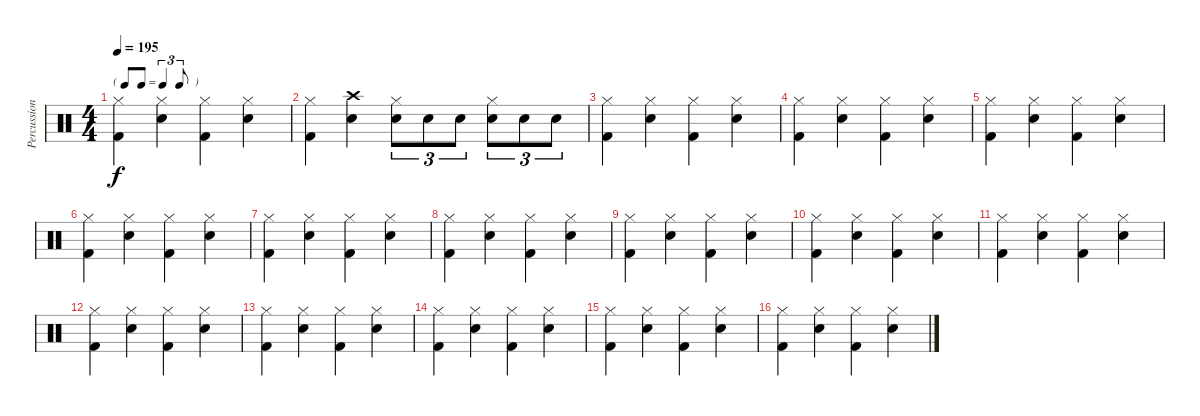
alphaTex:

\track ("Percussions" "Percussion") {instrument percussion}
\staff {score}
\articulation defaults
\ts (4 4)
\tf triplet8th
\tempo 195
\clef neutral
\ks c
("Hi-Hat (closed)" "Kick (hit) 2").4{dy f} ("Snare (hit) 2" "Hi-Hat (closed)").4 ("Hi-Hat (closed)" "Kick (hit) 2").4 ("Snare (hit) 2" "Hi-Hat (closed)").4 |
("Hi-Hat (closed)" "Kick (hit) 2").4 ("Snare (hit) 2" "Crash high (hit)").4 ("Snare (hit) 2" "Hi-Hat (closed)").8{tu (3 2)} "Snare (hit) 2".8{tu (3 2)} "Snare (hit) 2".8{tu (3 2)} ("Snare (hit) 2" "Hi-Hat (closed)").8{tu (3 2)} "Snare (hit) 2".8{tu (3 2)} "Snare (hit) 2".8{tu (3 2)} |
("Hi-Hat (closed)" "Kick (hit) 2").4 ("Snare (hit) 2" "Hi-Hat (closed)").4 ("Hi-Hat (closed)" "Kick (hit) 2").4 ("Snare (hit) 2" "Hi-Hat (closed)").4 |
("Hi-Hat (closed)" "Kick (hit) 2").4 ("Snare (hit) 2" "Hi-Hat (closed)").4 ("Hi-Hat (closed)" "Kick (hit) 2").4 ("Snare (hit) 2" "Hi-Hat (closed)").4 |
("Hi-Hat (closed)" "Kick (hit) 2").4 ("Snare (hit) 2" "Hi-Hat (closed)").4 ("Hi-Hat (closed)" "Kick (hit) 2").4 ("Snare (hit) 2" "Hi-Hat (closed)").4 |
("Hi-Hat (closed)" "Kick (hit) 2").4 ("Snare (hit) 2" "Hi-Hat (closed)").4 ("Hi-Hat (closed)" "Kick (hit) 2").4 ("Snare (hit) 2" "Hi-Hat (closed)").4 |
("Hi-Hat (closed)" "Kick (hit) 2").4 ("Snare (hit) 2" "Hi-Hat (closed)").4 ("Hi-Hat (closed)" "Kick (hit) 2").4 ("Snare (hit) 2" "Hi-Hat (closed)").4 |
("Hi-Hat (closed)" "Kick (hit) 2").4 ("Snare (hit) 2" "Hi-Hat (closed)").4 ("Hi-Hat (closed)" "Kick (hit) 2").4 ("Snare (hit) 2" "Hi-Hat (closed)").4 |
("Hi-Hat (closed)" "Kick (hit) 2").4 ("Snare (hit) 2" "Hi-Hat (closed)").4 ("Hi-Hat (closed)" "Kick (hit) 2").4 ("Snare (hit) 2" "Hi-Hat (closed)").4 |
("Hi-Hat (closed)" "Kick (hit) 2").4 ("Snare (hit) 2" "Hi-Hat (closed)").4 ("Hi-Hat (closed)" "Kick (hit) 2").4 ("Snare (hit) 2" "Hi-Hat (closed)").4 |
("Hi-Hat (closed)" "Kick (hit) 2").4 ("Snare (hit) 2" "Hi-Hat (closed)").4 ("Hi-Hat (closed)" "Kick (hit) 2").4 ("Snare (hit) 2" "Hi-Hat (closed)").4 |
("Hi-Hat (closed)" "Kick (hit) 2").4 ("Snare (hit) 2" "Hi-Hat (closed)").4 ("Hi-Hat (closed)" "Kick (hit) 2").4 ("Snare (hit) 2" "Hi-Hat (closed)").4 |
("Hi-Hat (closed)" "Kick (hit) 2").4 ("Snare (hit) 2" "Hi-Hat (closed)").4 ("Hi-Hat (closed)" "Kick (hit) 2").4 ("Snare (hit) 2" "Hi-Hat (closed)").4 |
("Hi-Hat (closed)" "Kick (hit) 2").4 ("Snare (hit) 2" "Hi-Hat (closed)").4 ("Hi-Hat (closed)" "Kick (hit) 2").4 ("Snare (hit) 2" "Hi-Hat (closed)").4 |
("Hi-Hat (closed)" "Kick (hit) 2").4 ("Snare (hit) 2" "Hi-Hat (closed)").4 ("Hi-Hat (closed)" "Kick (hit) 2").4 ("Snare (hit) 2" "Hi-Hat (closed)").4 |
("Hi-Hat (closed)" "Kick (hit) 2").4 ("Snare (hit) 2" "Hi-Hat (closed)").4 ("Hi-Hat (closed)" "Kick (hit) 2").4 ("Snare (hit) 2" "Hi-Hat (closed)").4
